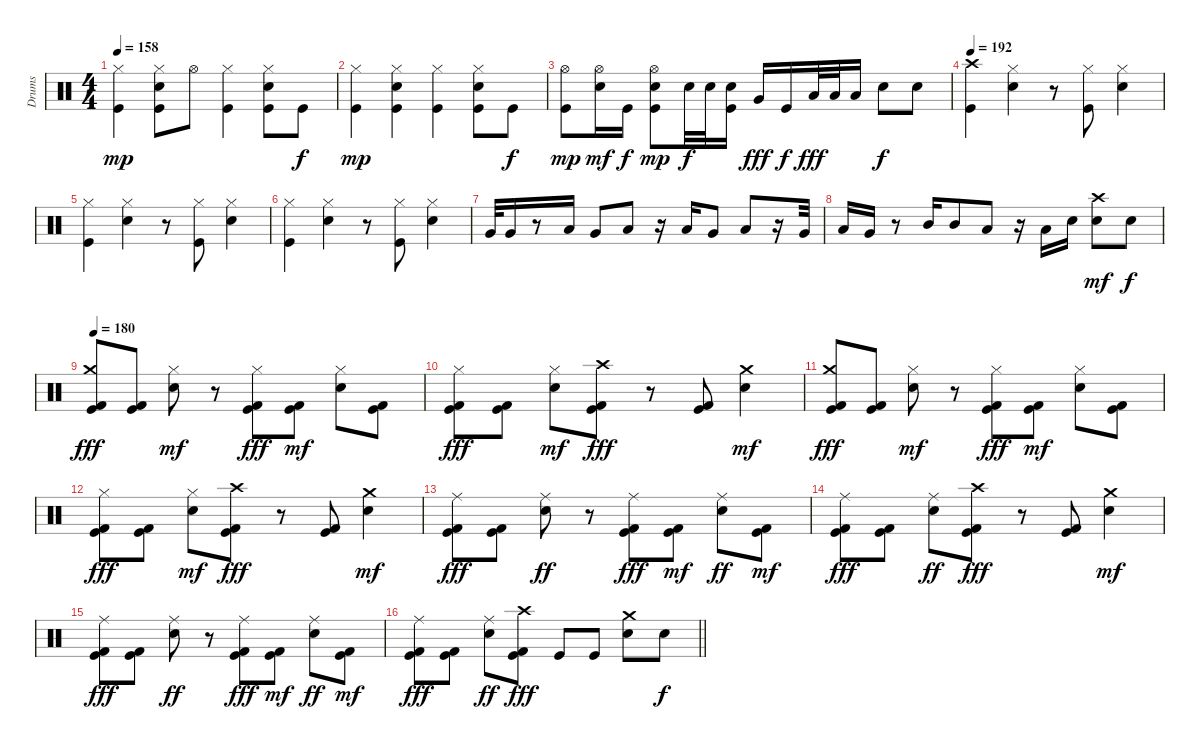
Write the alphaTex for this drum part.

\track ("Drums" "Drums") {instrument percussion}
\staff {score}
\articulation defaults
\ts (4 4)
\tempo 158
\clef neutral
\ks c
("Hi-Hat (closed)" "Kick (hit)").4{dy mp} ("Hi-Hat (closed)" "Snare (hit) 2" "Kick (hit)").8 "Hi-Hat (open)".8 ("Hi-Hat (closed)" "Kick (hit)").4 ("Hi-Hat (closed)" "Snare (hit) 2" "Kick (hit)").8 "Kick (hit)".8{dy f} |
("Hi-Hat (closed)" "Kick (hit)").4{dy mp} ("Hi-Hat (closed)" "Snare (hit) 2" "Kick (hit)").4 ("Hi-Hat (closed)" "Kick (hit)").4 ("Hi-Hat (closed)" "Snare (hit) 2" "Kick (hit)").8 "Kick (hit)".8{dy f} |
("Hi-Hat (open)" "Kick (hit)").8{dy mp} ("Hi-Hat (open)" "Snare (hit) 2").16{dy mf} "Kick (hit)".16{dy f} ("Hi-Hat (open)" "Snare (hit) 2" "Kick (hit)").8{dy mp} "Snare (hit) 2".32{dy f} "Snare (hit) 2".32 ("Snare (hit) 2" "Kick (hit)").16 "Very Low Tom (hit)".16{dy fff} "Kick (hit)".16{dy f balance 8} "Low Tom (hit)".32{dy fff balance 0} "Low Tom (hit)".32{balance 0} "Low Tom (hit)".16{balance 0} "Snare (hit) 2".8{dy f volume 13 balance 8} "Snare (hit) 2".8 |
\tempo 192
("Crash high (hit)" "Kick (hit)").4 ("Hi-Hat (closed)" "Snare (hit) 2").4 r.8 ("Hi-Hat (closed)" "Kick (hit)").8 ("Hi-Hat (closed)" "Snare (hit) 2").4 |
("Hi-Hat (closed)" "Kick (hit)").4 ("Hi-Hat (closed)" "Snare (hit) 2").4 r.8 ("Hi-Hat (closed)" "Kick (hit)").8 ("Hi-Hat (closed)" "Snare (hit) 2").4 |
("Hi-Hat (closed)" "Kick (hit)").4 ("Hi-Hat (closed)" "Snare (hit) 2").4 r.8 ("Hi-Hat (closed)" "Kick (hit)").8 ("Hi-Hat (closed)" "Snare (hit) 2").4 |
"Very Low Tom (hit)".32{volume 16 balance 16} "Very Low Tom (hit)".16{balance 0} r.8 "Low Tom (hit)".16 "Very Low Tom (hit)".8 "Low Tom (hit)".8 r.16 "Low Tom (hit)".16 "Very Low Tom (hit)".8 "Low Tom (hit)".8 r.16 "Very Low Tom (hit)".32 |
"Low Tom (hit)".16 "Very Low Tom (hit)".16 r.8 "Mid Tom (hit)".16 "Mid Tom (hit)".8 "Low Tom (hit)".8 r.16 "Low Tom (hit)".16 "Snare (hit) 2".16 ("Crash high (hit)" "Snare (hit) 2").8{dy mf} "Snare (hit) 2".8{dy f} |
\tempo 180
("Crash medium (hit)" "Kick (hit) 2" "Kick (hit)").8{dy fff volume 13 balance 8} ("Kick (hit) 2" "Kick (hit)").8 ("Hi-Hat (closed)" "Snare (hit) 2").8{dy mf} r.8 ("Hi-Hat (closed)" "Kick (hit) 2" "Kick (hit)").8{dy fff} ("Kick (hit) 2" "Kick (hit)").8{dy mf} ("Hi-Hat (closed)" "Snare (hit) 2").8 ("Kick (hit) 2" "Kick (hit)").8 |
("Hi-Hat (closed)" "Kick (hit) 2" "Kick (hit)").8{dy fff} ("Kick (hit) 2" "Kick (hit)").8 ("Hi-Hat (closed)" "Snare (hit) 2").8{dy mf} ("Crash high (hit)" "Kick (hit) 2" "Kick (hit)").8{dy fff} r.8 ("Kick (hit) 2" "Kick (hit)").8 ("Crash medium (hit)" "Snare (hit) 2").4{dy mf} |
("Crash medium (hit)" "Kick (hit) 2" "Kick (hit)").8{dy fff} ("Kick (hit) 2" "Kick (hit)").8 ("Hi-Hat (closed)" "Snare (hit) 2").8{dy mf} r.8 ("Hi-Hat (closed)" "Kick (hit) 2" "Kick (hit)").8{dy fff} ("Kick (hit) 2" "Kick (hit)").8{dy mf} ("Hi-Hat (closed)" "Snare (hit) 2").8 ("Kick (hit) 2" "Kick (hit)").8 |
("Hi-Hat (closed)" "Kick (hit) 2" "Kick (hit)").8{dy fff} ("Kick (hit) 2" "Kick (hit)").8 ("Hi-Hat (closed)" "Snare (hit) 2").8{dy mf} ("Crash high (hit)" "Kick (hit) 2" "Kick (hit)").8{dy fff} r.8 ("Kick (hit) 2" "Kick (hit)").8 ("Crash medium (hit)" "Snare (hit) 2").4{dy mf} |
("Ride (middle)" "Kick (hit) 2" "Kick (hit)").8{dy fff} ("Kick (hit) 2" "Kick (hit)").8 ("Ride (middle)" "Snare (hit) 2").8{dy ff} r.8 ("Ride (middle)" "Kick (hit) 2" "Kick (hit)").8{dy fff} ("Kick (hit) 2" "Kick (hit)").8{dy mf} ("Ride (middle)" "Snare (hit) 2").8{dy ff} ("Kick (hit) 2" "Kick (hit)").8{dy mf} |
("Ride (middle)" "Kick (hit) 2" "Kick (hit)").8{dy fff} ("Kick (hit) 2" "Kick (hit)").8 ("Ride (middle)" "Snare (hit) 2").8{dy ff} ("Crash high (hit)" "Kick (hit) 2" "Kick (hit)").8{dy fff} r.8 ("Kick (hit) 2" "Kick (hit)").8 ("Crash medium (hit)" "Snare (hit) 2").4{dy mf} |
("Ride (middle)" "Kick (hit) 2" "Kick (hit)").8{dy fff} ("Kick (hit) 2" "Kick (hit)").8 ("Ride (middle)" "Snare (hit) 2").8{dy ff} r.8 ("Ride (middle)" "Kick (hit) 2" "Kick (hit)").8{dy fff} ("Kick (hit) 2" "Kick (hit)").8{dy mf} ("Ride (middle)" "Snare (hit) 2").8{dy ff} ("Kick (hit) 2" "Kick (hit)").8{dy mf} |
\barLineRight lightlight
("Ride (middle)" "Kick (hit) 2" "Kick (hit)").8{dy fff} ("Kick (hit) 2" "Kick (hit)").8 ("Ride (middle)" "Snare (hit) 2").8{dy ff} ("Crash high (hit)" "Kick (hit) 2" "Kick (hit)").8{dy fff} "Kick (hit)".8 "Kick (hit)".8 ("Crash medium (hit)" "Snare (hit) 2").8 "Snare (hit) 2".8{dy f}
